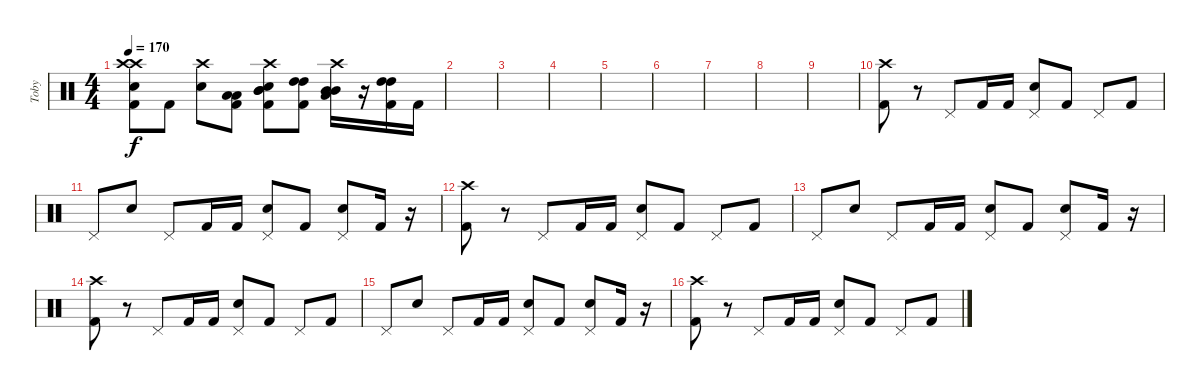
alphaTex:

\track ("Toby" "Toby") {instrument percussion}
\staff {score}
\articulation defaults
\ts (4 4)
\tempo 170
\clef neutral
\ks c
("Crash high (hit)" "Crash high (hit)" "Electric Snare (hit)" "Kick (hit) 2").8{dy f} "Kick (hit) 2".8 ("Crash high (hit)" "Electric Snare (hit)").8 ("Low Tom (hit)" "Low Tom (hit)" "Kick (hit) 2").8 ("Mid Tom (hit)" "Crash high (hit)" "Mid Tom (hit)" "Electric Snare (hit)" "Kick (hit) 2").8 ("High Tom (hit)" "High Tom (hit)" "Kick (hit) 2").8 ("Mid Tom (hit)" "Crash high (hit)" "Mid Tom (hit)" "Low Tom (hit)").16 r.16 ("High Tom (hit)" "High Tom (hit)" "Kick (hit) 2").16 "Kick (hit) 2".16 |
|
|
|
|
|
|
|
|
("Crash high (hit)" "Kick (hit) 2").8 r.8 "Pedal Hi-Hat (hit)".8 "Kick (hit) 2".16 "Kick (hit) 2".16 ("Pedal Hi-Hat (hit)" "Electric Snare (hit)").8 "Kick (hit) 2".8 "Pedal Hi-Hat (hit)".8 "Kick (hit) 2".8 |
"Pedal Hi-Hat (hit)".8 "Electric Snare (hit)".8 "Pedal Hi-Hat (hit)".8 "Kick (hit) 2".16 "Kick (hit) 2".16 ("Pedal Hi-Hat (hit)" "Electric Snare (hit)").8 "Kick (hit) 2".8 ("Pedal Hi-Hat (hit)" "Electric Snare (hit)").8 "Kick (hit) 2".16 r.16 |
("Crash high (hit)" "Kick (hit) 2").8 r.8 "Pedal Hi-Hat (hit)".8 "Kick (hit) 2".16 "Kick (hit) 2".16 ("Pedal Hi-Hat (hit)" "Electric Snare (hit)").8 "Kick (hit) 2".8 "Pedal Hi-Hat (hit)".8 "Kick (hit) 2".8 |
"Pedal Hi-Hat (hit)".8 "Electric Snare (hit)".8 "Pedal Hi-Hat (hit)".8 "Kick (hit) 2".16 "Kick (hit) 2".16 ("Pedal Hi-Hat (hit)" "Electric Snare (hit)").8 "Kick (hit) 2".8 ("Pedal Hi-Hat (hit)" "Electric Snare (hit)").8 "Kick (hit) 2".16 r.16 |
("Crash high (hit)" "Kick (hit) 2").8 r.8 "Pedal Hi-Hat (hit)".8 "Kick (hit) 2".16 "Kick (hit) 2".16 ("Pedal Hi-Hat (hit)" "Electric Snare (hit)").8 "Kick (hit) 2".8 "Pedal Hi-Hat (hit)".8 "Kick (hit) 2".8 |
"Pedal Hi-Hat (hit)".8 "Electric Snare (hit)".8 "Pedal Hi-Hat (hit)".8 "Kick (hit) 2".16 "Kick (hit) 2".16 ("Pedal Hi-Hat (hit)" "Electric Snare (hit)").8 "Kick (hit) 2".8 ("Pedal Hi-Hat (hit)" "Electric Snare (hit)").8 "Kick (hit) 2".16 r.16 |
("Crash high (hit)" "Kick (hit) 2").8 r.8 "Pedal Hi-Hat (hit)".8 "Kick (hit) 2".16 "Kick (hit) 2".16 ("Pedal Hi-Hat (hit)" "Electric Snare (hit)").8 "Kick (hit) 2".8 "Pedal Hi-Hat (hit)".8 "Kick (hit) 2".8
